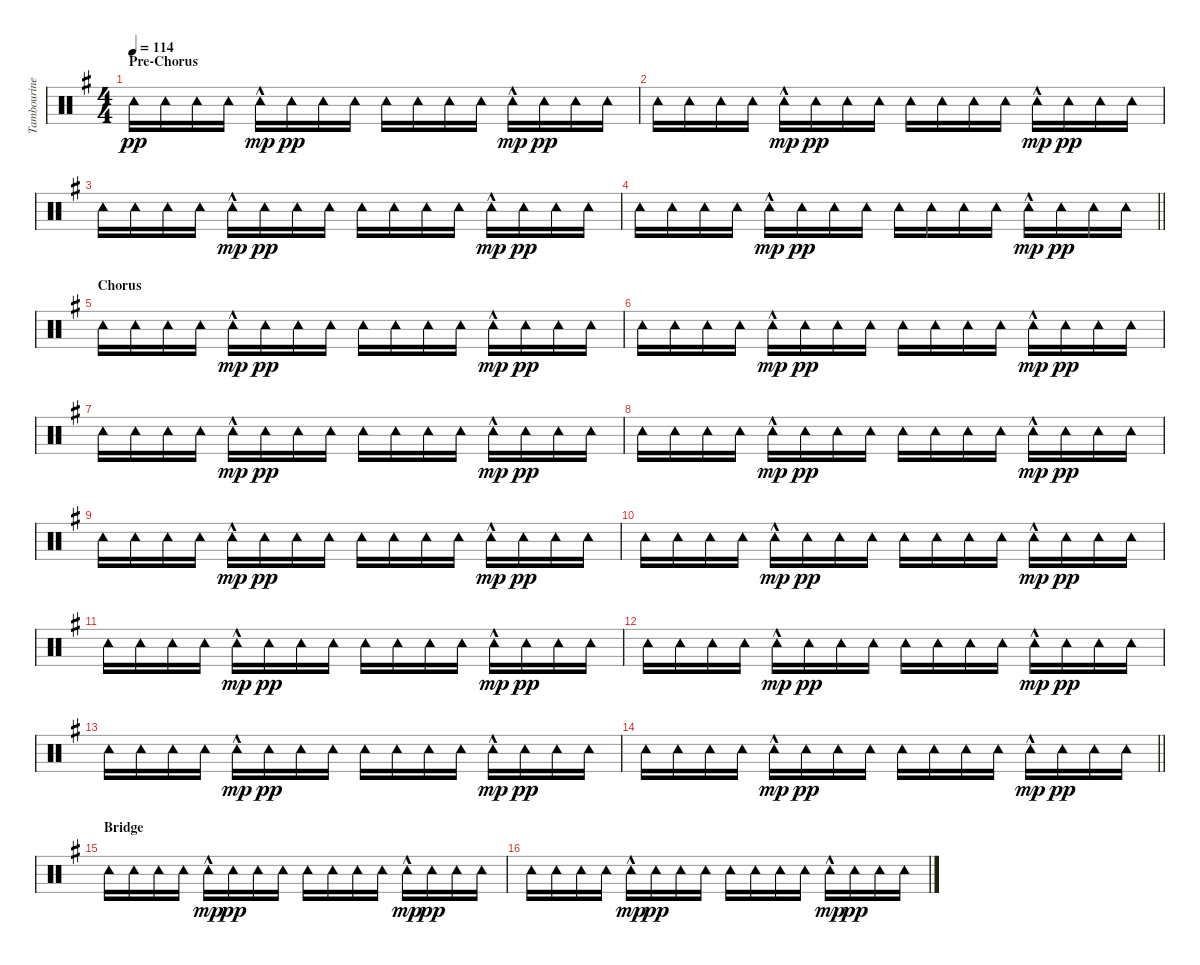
\track ("Tambourine" "Tambourine") {instrument percussion}
\staff {score}
\articulation defaults
\ts (4 4)
\section ("" "Pre-Chorus")
\tempo 114
\clef neutral
\ks g "Tambourine (hit)".16{dy pp} "Tambourine (hit)".16 "Tambourine (hit)".16 "Tambourine (hit)".16 "Tambourine (hit)"{hac}.16{dy mp} "Tambourine (hit)".16{dy pp} "Tambourine (hit)".16 "Tambourine (hit)".16 "Tambourine (hit)".16 "Tambourine (hit)".16 "Tambourine (hit)".16 "Tambourine (hit)".16 "Tambourine (hit)"{hac}.16{dy mp} "Tambourine (hit)".16{dy pp} "Tambourine (hit)".16 "Tambourine (hit)".16
|
"Tambourine (hit)".16 "Tambourine (hit)".16 "Tambourine (hit)".16 "Tambourine (hit)".16 "Tambourine (hit)"{hac}.16{dy mp} "Tambourine (hit)".16{dy pp} "Tambourine (hit)".16 "Tambourine (hit)".16 "Tambourine (hit)".16 "Tambourine (hit)".16 "Tambourine (hit)".16 "Tambourine (hit)".16 "Tambourine (hit)"{hac}.16{dy mp} "Tambourine (hit)".16{dy pp} "Tambourine (hit)".16 "Tambourine (hit)".16 |
"Tambourine (hit)".16 "Tambourine (hit)".16 "Tambourine (hit)".16 "Tambourine (hit)".16 "Tambourine (hit)"{hac}.16{dy mp} "Tambourine (hit)".16{dy pp} "Tambourine (hit)".16 "Tambourine (hit)".16 "Tambourine (hit)".16 "Tambourine (hit)".16 "Tambourine (hit)".16 "Tambourine (hit)".16 "Tambourine (hit)"{hac}.16{dy mp} "Tambourine (hit)".16{dy pp} "Tambourine (hit)".16 "Tambourine (hit)".16 |
\barLineRight lightlight "Tambourine (hit)".16 "Tambourine (hit)".16 "Tambourine (hit)".16 "Tambourine (hit)".16 "Tambourine (hit)"{hac}.16{dy mp} "Tambourine (hit)".16{dy pp} "Tambourine (hit)".16 "Tambourine (hit)".16 "Tambourine (hit)".16 "Tambourine (hit)".16 "Tambourine (hit)".16 "Tambourine (hit)".16 "Tambourine (hit)"{hac}.16{dy mp} "Tambourine (hit)".16{dy pp} "Tambourine (hit)".16 "Tambourine (hit)".16
|
\section ("" "Chorus")
"Tambourine (hit)".16 "Tambourine (hit)".16 "Tambourine (hit)".16 "Tambourine (hit)".16 "Tambourine (hit)"{hac}.16{dy mp} "Tambourine (hit)".16{dy pp} "Tambourine (hit)".16 "Tambourine (hit)".16 "Tambourine (hit)".16 "Tambourine (hit)".16 "Tambourine (hit)".16 "Tambourine (hit)".16 "Tambourine (hit)"{hac}.16{dy mp} "Tambourine (hit)".16{dy pp} "Tambourine (hit)".16 "Tambourine (hit)".16 |
"Tambourine (hit)".16 "Tambourine (hit)".16 "Tambourine (hit)".16 "Tambourine (hit)".16 "Tambourine (hit)"{hac}.16{dy mp} "Tambourine (hit)".16{dy pp} "Tambourine (hit)".16 "Tambourine (hit)".16 "Tambourine (hit)".16 "Tambourine (hit)".16 "Tambourine (hit)".16 "Tambourine (hit)".16 "Tambourine (hit)"{hac}.16{dy mp} "Tambourine (hit)".16{dy pp} "Tambourine (hit)".16 "Tambourine (hit)".16 |
"Tambourine (hit)".16 "Tambourine (hit)".16 "Tambourine (hit)".16 "Tambourine (hit)".16 "Tambourine (hit)"{hac}.16{dy mp} "Tambourine (hit)".16{dy pp} "Tambourine (hit)".16 "Tambourine (hit)".16 "Tambourine (hit)".16 "Tambourine (hit)".16 "Tambourine (hit)".16 "Tambourine (hit)".16 "Tambourine (hit)"{hac}.16{dy mp} "Tambourine (hit)".16{dy pp} "Tambourine (hit)".16 "Tambourine (hit)".16 |
"Tambourine (hit)".16 "Tambourine (hit)".16 "Tambourine (hit)".16 "Tambourine (hit)".16 "Tambourine (hit)"{hac}.16{dy mp} "Tambourine (hit)".16{dy pp} "Tambourine (hit)".16 "Tambourine (hit)".16 "Tambourine (hit)".16 "Tambourine (hit)".16 "Tambourine (hit)".16 "Tambourine (hit)".16 "Tambourine (hit)"{hac}.16{dy mp} "Tambourine (hit)".16{dy pp} "Tambourine (hit)".16 "Tambourine (hit)".16 |
"Tambourine (hit)".16 "Tambourine (hit)".16 "Tambourine (hit)".16 "Tambourine (hit)".16 "Tambourine (hit)"{hac}.16{dy mp} "Tambourine (hit)".16{dy pp} "Tambourine (hit)".16 "Tambourine (hit)".16 "Tambourine (hit)".16 "Tambourine (hit)".16 "Tambourine (hit)".16 "Tambourine (hit)".16 "Tambourine (hit)"{hac}.16{dy mp} "Tambourine (hit)".16{dy pp} "Tambourine (hit)".16 "Tambourine (hit)".16 |
"Tambourine (hit)".16 "Tambourine (hit)".16 "Tambourine (hit)".16 "Tambourine (hit)".16 "Tambourine (hit)"{hac}.16{dy mp} "Tambourine (hit)".16{dy pp} "Tambourine (hit)".16 "Tambourine (hit)".16 "Tambourine (hit)".16 "Tambourine (hit)".16 "Tambourine (hit)".16 "Tambourine (hit)".16 "Tambourine (hit)"{hac}.16{dy mp} "Tambourine (hit)".16{dy pp} "Tambourine (hit)".16 "Tambourine (hit)".16 |
"Tambourine (hit)".16 "Tambourine (hit)".16 "Tambourine (hit)".16 "Tambourine (hit)".16 "Tambourine (hit)"{hac}.16{dy mp} "Tambourine (hit)".16{dy pp} "Tambourine (hit)".16 "Tambourine (hit)".16 "Tambourine (hit)".16 "Tambourine (hit)".16 "Tambourine (hit)".16 "Tambourine (hit)".16 "Tambourine (hit)"{hac}.16{dy mp} "Tambourine (hit)".16{dy pp} "Tambourine (hit)".16 "Tambourine (hit)".16 |
"Tambourine (hit)".16 "Tambourine (hit)".16 "Tambourine (hit)".16 "Tambourine (hit)".16 "Tambourine (hit)"{hac}.16{dy mp} "Tambourine (hit)".16{dy pp} "Tambourine (hit)".16 "Tambourine (hit)".16 "Tambourine (hit)".16 "Tambourine (hit)".16 "Tambourine (hit)".16 "Tambourine (hit)".16 "Tambourine (hit)"{hac}.16{dy mp} "Tambourine (hit)".16{dy pp} "Tambourine (hit)".16 "Tambourine (hit)".16 |
"Tambourine (hit)".16 "Tambourine (hit)".16 "Tambourine (hit)".16 "Tambourine (hit)".16 "Tambourine (hit)"{hac}.16{dy mp} "Tambourine (hit)".16{dy pp} "Tambourine (hit)".16 "Tambourine (hit)".16 "Tambourine (hit)".16 "Tambourine (hit)".16 "Tambourine (hit)".16 "Tambourine (hit)".16 "Tambourine (hit)"{hac}.16{dy mp} "Tambourine (hit)".16{dy pp} "Tambourine (hit)".16 "Tambourine (hit)".16 |
\barLineRight lightlight "Tambourine (hit)".16 "Tambourine (hit)".16 "Tambourine (hit)".16 "Tambourine (hit)".16 "Tambourine (hit)"{hac}.16{dy mp} "Tambourine (hit)".16{dy pp} "Tambourine (hit)".16 "Tambourine (hit)".16 "Tambourine (hit)".16 "Tambourine (hit)".16 "Tambourine (hit)".16 "Tambourine (hit)".16 "Tambourine (hit)"{hac}.16{dy mp} "Tambourine (hit)".16{dy pp} "Tambourine (hit)".16 "Tambourine (hit)".16
|
\section ("" "Bridge")
"Tambourine (hit)".16 "Tambourine (hit)".16 "Tambourine (hit)".16 "Tambourine (hit)".16 "Tambourine (hit)"{hac}.16{dy mp} "Tambourine (hit)".16{dy pp} "Tambourine (hit)".16 "Tambourine (hit)".16 "Tambourine (hit)".16 "Tambourine (hit)".16 "Tambourine (hit)".16 "Tambourine (hit)".16 "Tambourine (hit)"{hac}.16{dy mp} "Tambourine (hit)".16{dy pp} "Tambourine (hit)".16 "Tambourine (hit)".16 |
"Tambourine (hit)".16 "Tambourine (hit)".16 "Tambourine (hit)".16 "Tambourine (hit)".16 "Tambourine (hit)"{hac}.16{dy mp} "Tambourine (hit)".16{dy pp} "Tambourine (hit)".16 "Tambourine (hit)".16 "Tambourine (hit)".16 "Tambourine (hit)".16 "Tambourine (hit)".16 "Tambourine (hit)".16 "Tambourine (hit)"{hac}.16{dy mp} "Tambourine (hit)".16{dy pp} "Tambourine (hit)".16 "Tambourine (hit)".16
